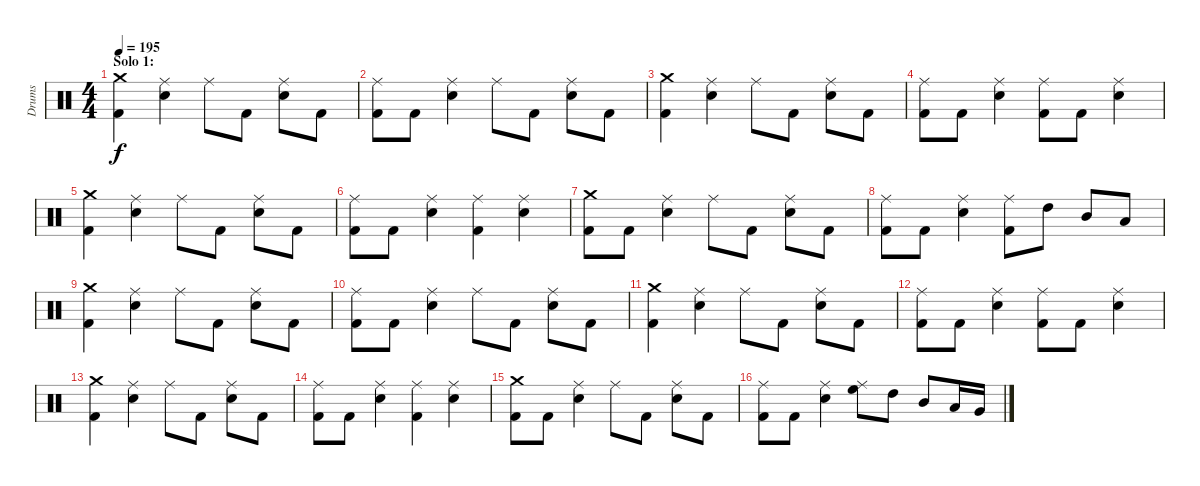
\track ("Drums" "Drums") {instrument percussion}
\staff {score}
\articulation defaults
\ts (4 4)
\section ("" "Solo 1:")
\tempo 195
\clef neutral
\ks c
("Crash medium (hit)" "Kick (hit) 2").4{dy f} ("Ride (middle)" "Electric Snare (hit)").4 "Ride (middle)".8 "Kick (hit) 2".8 ("Ride (middle)" "Electric Snare (hit)").8 "Kick (hit) 2".8 |
("Ride (middle)" "Kick (hit) 2").8 "Kick (hit) 2".8 ("Ride (middle)" "Electric Snare (hit)").4 "Ride (middle)".8 "Kick (hit) 2".8 ("Ride (middle)" "Electric Snare (hit)").8 "Kick (hit) 2".8 |
("Crash medium (hit)" "Kick (hit) 2").4 ("Ride (middle)" "Electric Snare (hit)").4 "Ride (middle)".8 "Kick (hit) 2".8 ("Ride (middle)" "Electric Snare (hit)").8 "Kick (hit) 2".8 |
("Ride (middle)" "Kick (hit) 2").8 "Kick (hit) 2".8 ("Ride (middle)" "Electric Snare (hit)").4 ("Ride (middle)" "Kick (hit) 2").8 "Kick (hit) 2".8 ("Ride (middle)" "Electric Snare (hit)").4 |
("Crash medium (hit)" "Kick (hit) 2").4 ("Ride (middle)" "Electric Snare (hit)").4 "Ride (middle)".8 "Kick (hit) 2".8 ("Ride (middle)" "Electric Snare (hit)").8 "Kick (hit) 2".8 |
("Ride (middle)" "Kick (hit) 2").8 "Kick (hit) 2".8 ("Ride (middle)" "Electric Snare (hit)").4 ("Ride (middle)" "Kick (hit) 2").4 ("Ride (middle)" "Electric Snare (hit)").4 |
("Crash medium (hit)" "Kick (hit) 2").8 "Kick (hit) 2".8 ("Ride (middle)" "Electric Snare (hit)").4 "Ride (middle)".8 "Kick (hit) 2".8 ("Ride (middle)" "Electric Snare (hit)").8 "Kick (hit) 2".8 |
("Ride (middle)" "Kick (hit) 2").8 "Kick (hit) 2".8 ("Ride (middle)" "Electric Snare (hit)").4 ("Ride (middle)" "Kick (hit) 2").8 "High Tom (hit)".8 "Mid Tom (hit)".8 "Low Tom (hit)".8 |
("Crash medium (hit)" "Kick (hit) 2").4 ("Ride (middle)" "Electric Snare (hit)").4 "Ride (middle)".8 "Kick (hit) 2".8 ("Ride (middle)" "Electric Snare (hit)").8 "Kick (hit) 2".8 |
("Ride (middle)" "Kick (hit) 2").8 "Kick (hit) 2".8 ("Ride (middle)" "Electric Snare (hit)").4 "Ride (middle)".8 "Kick (hit) 2".8 ("Ride (middle)" "Electric Snare (hit)").8 "Kick (hit) 2".8 |
("Crash medium (hit)" "Kick (hit) 2").4 ("Ride (middle)" "Electric Snare (hit)").4 "Ride (middle)".8 "Kick (hit) 2".8 ("Ride (middle)" "Electric Snare (hit)").8 "Kick (hit) 2".8 |
("Ride (middle)" "Kick (hit) 2").8 "Kick (hit) 2".8 ("Ride (middle)" "Electric Snare (hit)").4 ("Ride (middle)" "Kick (hit) 2").8 "Kick (hit) 2".8 ("Ride (middle)" "Electric Snare (hit)").4 |
("Crash medium (hit)" "Kick (hit) 2").4 ("Ride (middle)" "Electric Snare (hit)").4 "Ride (middle)".8 "Kick (hit) 2".8 ("Ride (middle)" "Electric Snare (hit)").8 "Kick (hit) 2".8 |
("Ride (middle)" "Kick (hit) 2").8 "Kick (hit) 2".8 ("Ride (middle)" "Electric Snare (hit)").4 ("Ride (middle)" "Kick (hit) 2").4 ("Ride (middle)" "Electric Snare (hit)").4 |
("Crash medium (hit)" "Kick (hit) 2").8 "Kick (hit) 2".8 ("Ride (middle)" "Electric Snare (hit)").4 "Ride (middle)".8 "Kick (hit) 2".8 ("Ride (middle)" "Electric Snare (hit)").8 "Kick (hit) 2".8 |
("Ride (middle)" "Kick (hit) 2").8 "Kick (hit) 2".8 ("Ride (middle)" "Electric Snare (hit)").4 ("Ride (middle)" "High Floor Tom (hit)").8 "High Tom (hit)".8 "Mid Tom (hit)".8 "Low Tom (hit)".16 "Very Low Tom (hit)".16
